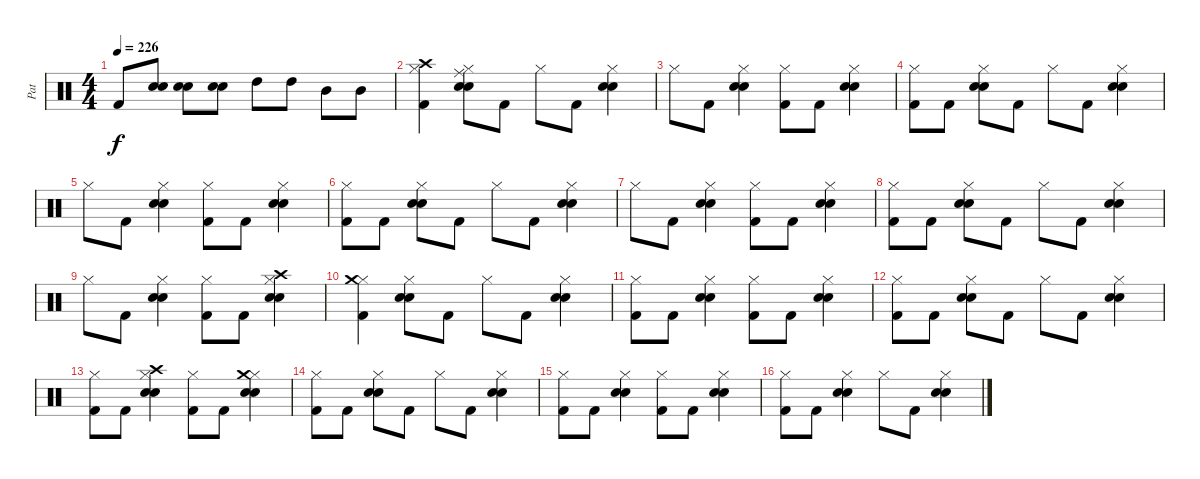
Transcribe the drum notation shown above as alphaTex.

\track ("Pat" "Pat") {instrument percussion}
\staff {score}
\articulation defaults
\ts (4 4)
\tempo 226
\clef neutral
\ks c "Kick (hit) 2".8{dy f}
("Snare (hit) 2" "Electric Snare (hit)").8 ("Snare (hit) 2" "Electric Snare (hit)").8 ("Snare (hit) 2" "Electric Snare (hit)").8 "High Tom (hit)".8 "High Tom (hit)".8 "Mid Tom (hit)".8 "Mid Tom (hit)".8 |
("Hi-Hat (closed)" "Crash high (hit)" "Kick (hit) 2").4 ("Hi-Hat (closed)" "Ride (middle)" "Snare (hit) 2" "Electric Snare (hit)").8 "Kick (hit) 2".8 "Hi-Hat (closed)".8 "Kick (hit) 2".8 ("Hi-Hat (closed)" "Snare (hit) 2" "Electric Snare (hit)").4 |
"Hi-Hat (closed)".8 "Kick (hit) 2".8 ("Hi-Hat (closed)" "Snare (hit) 2" "Electric Snare (hit)").4 ("Hi-Hat (closed)" "Kick (hit) 2").8 "Kick (hit) 2".8 ("Hi-Hat (closed)" "Snare (hit) 2" "Electric Snare (hit)").4 |
("Hi-Hat (closed)" "Kick (hit) 2").8 "Kick (hit) 2".8 ("Hi-Hat (closed)" "Snare (hit) 2" "Electric Snare (hit)").8 "Kick (hit) 2".8 "Hi-Hat (closed)".8 "Kick (hit) 2".8 ("Hi-Hat (closed)" "Snare (hit) 2" "Electric Snare (hit)").4 |
"Hi-Hat (closed)".8 "Kick (hit) 2".8 ("Hi-Hat (closed)" "Snare (hit) 2" "Electric Snare (hit)").4 ("Hi-Hat (closed)" "Kick (hit) 2").8 "Kick (hit) 2".8 ("Hi-Hat (closed)" "Snare (hit) 2" "Electric Snare (hit)").4 |
("Hi-Hat (closed)" "Kick (hit) 2").8 "Kick (hit) 2".8 ("Hi-Hat (closed)" "Snare (hit) 2" "Electric Snare (hit)").8 "Kick (hit) 2".8 "Hi-Hat (closed)".8 "Kick (hit) 2".8 ("Hi-Hat (closed)" "Snare (hit) 2" "Electric Snare (hit)").4 |
"Hi-Hat (closed)".8 "Kick (hit) 2".8 ("Hi-Hat (closed)" "Snare (hit) 2" "Electric Snare (hit)").4 ("Hi-Hat (closed)" "Kick (hit) 2").8 "Kick (hit) 2".8 ("Hi-Hat (closed)" "Snare (hit) 2" "Electric Snare (hit)").4 |
("Hi-Hat (closed)" "Kick (hit) 2").8 "Kick (hit) 2".8 ("Hi-Hat (closed)" "Snare (hit) 2" "Electric Snare (hit)").8 "Kick (hit) 2".8 "Hi-Hat (closed)".8 "Kick (hit) 2".8 ("Hi-Hat (closed)" "Snare (hit) 2" "Electric Snare (hit)").4 |
"Hi-Hat (closed)".8 "Kick (hit) 2".8 ("Hi-Hat (closed)" "Snare (hit) 2" "Electric Snare (hit)").4 ("Hi-Hat (closed)" "Kick (hit) 2").8 "Kick (hit) 2".8 ("Hi-Hat (closed)" "Crash high (hit)" "Snare (hit) 2" "Electric Snare (hit)").4 |
("Hi-Hat (closed)" "Crash medium (hit)" "Kick (hit) 2").4 ("Hi-Hat (closed)" "Snare (hit) 2" "Electric Snare (hit)").8 "Kick (hit) 2".8 "Hi-Hat (closed)".8 "Kick (hit) 2".8 ("Hi-Hat (closed)" "Snare (hit) 2" "Electric Snare (hit)").4 |
("Hi-Hat (closed)" "Kick (hit) 2").8 "Kick (hit) 2".8 ("Hi-Hat (closed)" "Snare (hit) 2" "Electric Snare (hit)").4 ("Hi-Hat (closed)" "Kick (hit) 2").8 "Kick (hit) 2".8 ("Hi-Hat (closed)" "Snare (hit) 2" "Electric Snare (hit)").4 |
("Hi-Hat (closed)" "Kick (hit) 2").8 "Kick (hit) 2".8 ("Hi-Hat (closed)" "Snare (hit) 2" "Electric Snare (hit)").8 "Kick (hit) 2".8 "Hi-Hat (closed)".8 "Kick (hit) 2".8 ("Hi-Hat (closed)" "Snare (hit) 2" "Electric Snare (hit)").4 |
("Hi-Hat (closed)" "Kick (hit) 2").8 "Kick (hit) 2".8 ("Hi-Hat (closed)" "Crash high (hit)" "Snare (hit) 2" "Electric Snare (hit)").4 ("Hi-Hat (closed)" "Kick (hit) 2").8 "Kick (hit) 2".8 ("Hi-Hat (closed)" "Crash medium (hit)" "Snare (hit) 2" "Electric Snare (hit)").4 |
("Hi-Hat (closed)" "Kick (hit) 2").8 "Kick (hit) 2".8 ("Hi-Hat (closed)" "Snare (hit) 2" "Electric Snare (hit)").8 "Kick (hit) 2".8 "Hi-Hat (closed)".8 "Kick (hit) 2".8 ("Hi-Hat (closed)" "Snare (hit) 2" "Electric Snare (hit)").4 |
("Hi-Hat (closed)" "Kick (hit) 2").8 "Kick (hit) 2".8 ("Hi-Hat (closed)" "Snare (hit) 2" "Electric Snare (hit)").4 ("Hi-Hat (closed)" "Kick (hit) 2").8 "Kick (hit) 2".8 ("Hi-Hat (closed)" "Snare (hit) 2" "Electric Snare (hit)").4 |
("Hi-Hat (closed)" "Kick (hit) 2").8 "Kick (hit) 2".8 ("Hi-Hat (closed)" "Snare (hit) 2" "Electric Snare (hit)").4 "Hi-Hat (closed)".8 "Kick (hit) 2".8 ("Hi-Hat (closed)" "Snare (hit) 2" "Electric Snare (hit)").4
